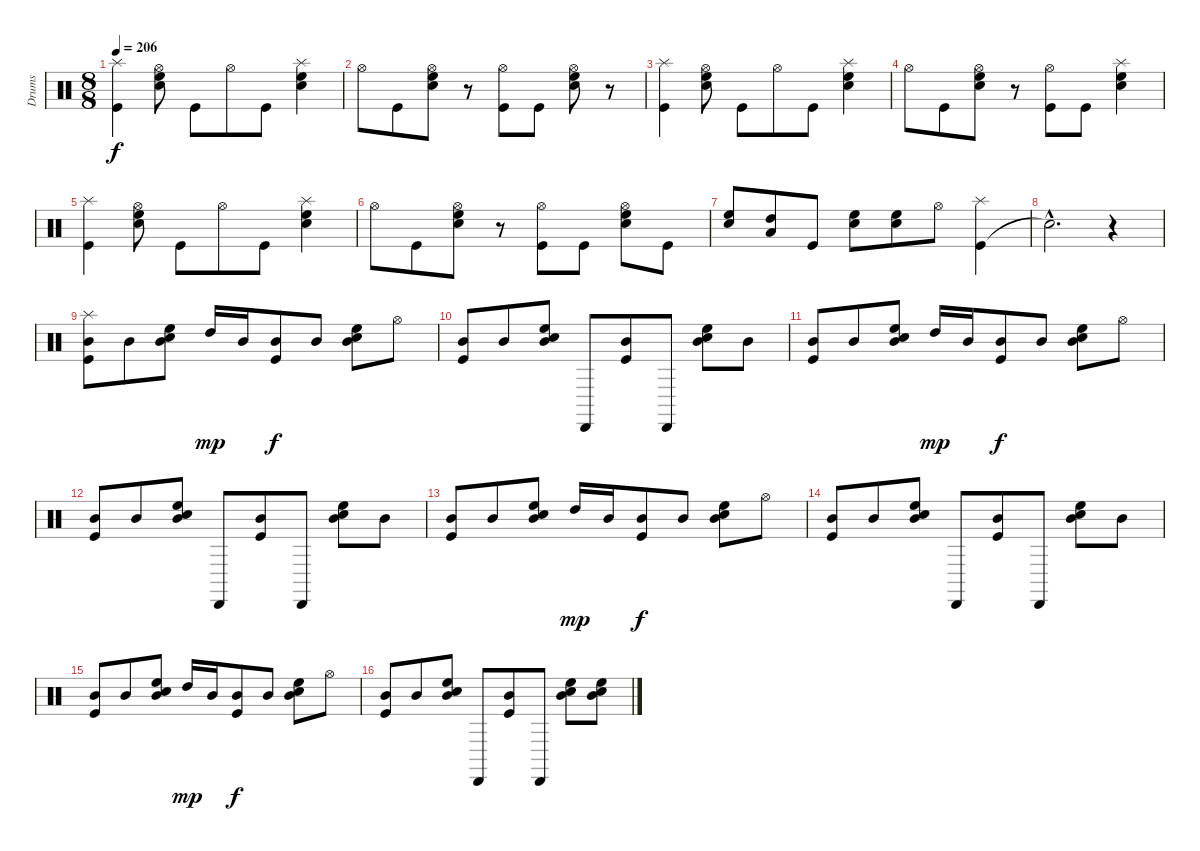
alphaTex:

\track ("Drums" "Drums") {instrument percussion}
\staff {score}
\articulation defaults
\ts (8 8)
\tempo 206
\clef neutral
\ks c
("Splash (hit)" "Kick (hit)").4{dy f} ("Hi-Hat (open)" "High Floor Tom (hit)" "Electric Snare (hit)").8 "Kick (hit)".8 "Hi-Hat (open)".8 "Kick (hit)".8 ("Splash (hit)" "High Floor Tom (hit)" "Electric Snare (hit)").4 |
"Hi-Hat (open)".8 "Kick (hit)".8 ("Hi-Hat (open)" "High Floor Tom (hit)" "Electric Snare (hit)").8 r.8 ("Hi-Hat (open)" "Kick (hit)").8 "Kick (hit)".8 ("Hi-Hat (open)" "High Floor Tom (hit)" "Electric Snare (hit)").8 r.8 |
("Splash (hit)" "Kick (hit)").4 ("Hi-Hat (open)" "High Floor Tom (hit)" "Electric Snare (hit)").8 "Kick (hit)".8 "Hi-Hat (open)".8 "Kick (hit)".8 ("Splash (hit)" "High Floor Tom (hit)" "Electric Snare (hit)").4 |
"Hi-Hat (open)".8 "Kick (hit)".8 ("Hi-Hat (open)" "High Floor Tom (hit)" "Electric Snare (hit)").8 r.8 ("Hi-Hat (open)" "Kick (hit)").8 "Kick (hit)".8 ("Splash (hit)" "High Floor Tom (hit)" "Electric Snare (hit)").4 |
("Splash (hit)" "Kick (hit)").4 ("Hi-Hat (open)" "High Floor Tom (hit)" "Electric Snare (hit)").8 "Kick (hit)".8 "Hi-Hat (open)".8 "Kick (hit)".8 ("Splash (hit)" "High Floor Tom (hit)" "Electric Snare (hit)").4 |
"Hi-Hat (open)".8 "Kick (hit)".8 ("Hi-Hat (open)" "High Floor Tom (hit)" "Electric Snare (hit)").8 r.8 ("Hi-Hat (open)" "Kick (hit)").8 "Kick (hit)".8 ("Hi-Hat (open)" "High Floor Tom (hit)" "Electric Snare (hit)").8 "Kick (hit)".8 |
("High Floor Tom (hit)" "Electric Snare (hit)").8 ("High Tom (hit)" "Low Tom (hit)").8 "Kick (hit)".8 ("High Floor Tom (hit)" "Electric Snare (hit)").8 ("High Floor Tom (hit)" "Electric Snare (hit)").8 "Hi-Hat (open)".8 ("Kick (hit)" "Splash (hit)").4 |
"Snare (hit)"{hac t}.2{d} r.4 |
("Splash (hit)" "Mid Tom (hit)" "Kick (hit)").8 "Mid Tom (hit)".8 ("Mid Tom (hit)" "High Floor Tom (hit)" "Electric Snare (hit)").8 "High Tom (hit)".16{dy mp} "Mid Tom (hit)".16 ("Mid Tom (hit)" "Kick (hit)").8{dy f} "Mid Tom (hit)".8 ("Mid Tom (hit)" "High Floor Tom (hit)" "Electric Snare (hit)").8 "Hi-Hat (open)".8 |
("Mid Tom (hit)" "Kick (hit)").8 "Mid Tom (hit)".8 ("Mid Tom (hit)" "High Floor Tom (hit)" "Electric Snare (hit)").8 "Cabasa (hit)".8 ("Mid Tom (hit)" "Kick (hit)").8 "Cabasa (hit)".8 ("Mid Tom (hit)" "High Floor Tom (hit)" "Electric Snare (hit)").8 "Mid Tom (hit)".8 |
("Mid Tom (hit)" "Kick (hit)").8 "Mid Tom (hit)".8 ("Mid Tom (hit)" "High Floor Tom (hit)" "Electric Snare (hit)").8 "High Tom (hit)".16{dy mp} "Mid Tom (hit)".16 ("Mid Tom (hit)" "Kick (hit)").8{dy f} "Mid Tom (hit)".8 ("Mid Tom (hit)" "High Floor Tom (hit)" "Electric Snare (hit)").8 "Hi-Hat (open)".8 |
("Mid Tom (hit)" "Kick (hit)").8 "Mid Tom (hit)".8 ("Mid Tom (hit)" "High Floor Tom (hit)" "Electric Snare (hit)").8 "Cabasa (hit)".8 ("Mid Tom (hit)" "Kick (hit)").8 "Cabasa (hit)".8 ("Mid Tom (hit)" "High Floor Tom (hit)" "Electric Snare (hit)").8 "Mid Tom (hit)".8 |
("Mid Tom (hit)" "Kick (hit)").8 "Mid Tom (hit)".8 ("Mid Tom (hit)" "High Floor Tom (hit)" "Electric Snare (hit)").8 "High Tom (hit)".16{dy mp} "Mid Tom (hit)".16 ("Mid Tom (hit)" "Kick (hit)").8{dy f} "Mid Tom (hit)".8 ("Mid Tom (hit)" "High Floor Tom (hit)" "Electric Snare (hit)").8 "Hi-Hat (open)".8 |
("Mid Tom (hit)" "Kick (hit)").8 "Mid Tom (hit)".8 ("Mid Tom (hit)" "High Floor Tom (hit)" "Electric Snare (hit)").8 "Cabasa (hit)".8 ("Mid Tom (hit)" "Kick (hit)").8 "Cabasa (hit)".8 ("Mid Tom (hit)" "High Floor Tom (hit)" "Electric Snare (hit)").8 "Mid Tom (hit)".8 |
("Mid Tom (hit)" "Kick (hit)").8 "Mid Tom (hit)".8 ("Mid Tom (hit)" "High Floor Tom (hit)" "Electric Snare (hit)").8 "High Tom (hit)".16{dy mp} "Mid Tom (hit)".16 ("Mid Tom (hit)" "Kick (hit)").8{dy f} "Mid Tom (hit)".8 ("Mid Tom (hit)" "High Floor Tom (hit)" "Electric Snare (hit)").8 "Hi-Hat (open)".8 |
("Mid Tom (hit)" "Kick (hit)").8 "Mid Tom (hit)".8 ("Mid Tom (hit)" "High Floor Tom (hit)" "Electric Snare (hit)").8 "Cabasa (hit)".8 ("Mid Tom (hit)" "Kick (hit)").8 "Cabasa (hit)".8 ("Mid Tom (hit)" "High Floor Tom (hit)" "Electric Snare (hit)").8 ("High Floor Tom (hit)" "Electric Snare (hit)" "Mid Tom (hit)").8
